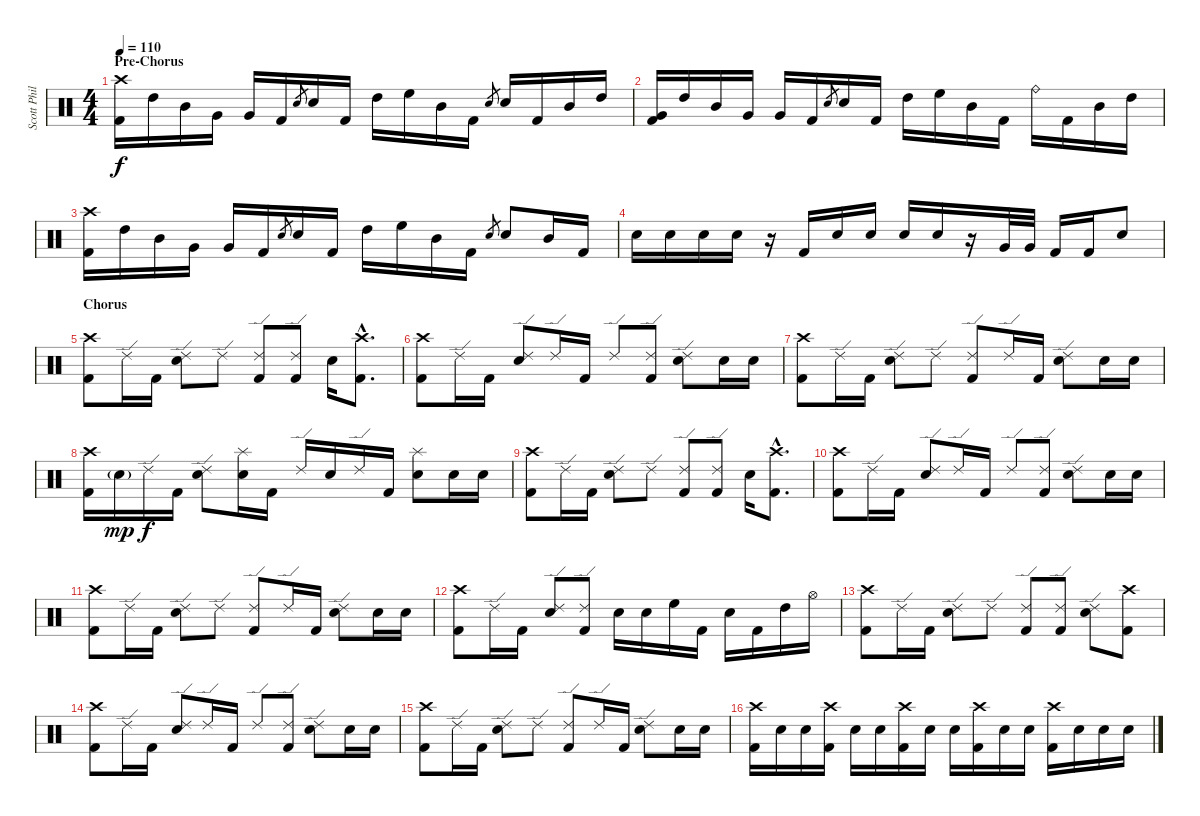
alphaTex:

\track ("Scott Phillips" "Scott Phil") {instrument percussion}
\staff {score}
\articulation defaults
\ts (4 4)
\section ("" "Pre-Chorus")
\tempo 110
\clef neutral
\ks c
("Crash high (hit)" "Kick (hit) 2").16{dy f} "High Tom (hit)".16 "Mid Tom (hit)".16 "Very Low Tom (hit)".16 "Very Low Tom (hit)".16 "Kick (hit) 2".16 "Snare (hit) 2".8{gr} "Snare (hit) 2".16 "Kick (hit) 2".16 "High Tom (hit)".16 "High Floor Tom (hit)".16 "Mid Tom (hit)".16 "Kick (hit) 2".16 "Snare (hit) 2".8{gr} "Snare (hit) 2".16 "Kick (hit) 2".16 "Mid Tom (hit)".16 "High Tom (hit)".16 |
("Very Low Tom (hit)" "Kick (hit) 2").16 "High Tom (hit)".16 "Mid Tom (hit)".16 "Very Low Tom (hit)".16 "Very Low Tom (hit)".16 "Kick (hit) 2".16 "Snare (hit) 2".8{gr} "Snare (hit) 2".16 "Kick (hit) 2".16 "High Tom (hit)".16 "High Floor Tom (hit)".16 "Mid Tom (hit)".16 "Kick (hit) 2".16 "Ride (bell)".16 "Kick (hit) 2".16 "Mid Tom (hit)".16 "High Tom (hit)".16 |
("Crash high (hit)" "Kick (hit) 2").16 "High Tom (hit)".16 "Mid Tom (hit)".16 "Very Low Tom (hit)".16 "Very Low Tom (hit)".16 "Kick (hit) 2".16 "Snare (hit) 2".8{gr} "Snare (hit) 2".16 "Kick (hit) 2".16 "High Tom (hit)".16 "High Floor Tom (hit)".16 "Mid Tom (hit)".16 "Kick (hit) 2".16 "Snare (hit) 2".8{gr} "Snare (hit) 2".8 "Mid Tom (hit)".16 "Kick (hit) 2".16 |
"Snare (hit) 2".16 "Snare (hit) 2".16 "Snare (hit) 2".16 "Snare (hit) 2".16 r.16 "Kick (hit) 2".16 "Snare (hit) 2".16 "Snare (hit) 2".16 "Snare (hit) 2".16 "Snare (hit) 2".16 r.16 "Very Low Tom (hit)".32 "Very Low Tom (hit)".32 "Kick (hit) 2".16 "Kick (hit) 2".16 "Snare (hit) 2".8 |
\section ("" "Chorus")
("Crash high (hit)" "Kick (hit) 2").8 "Ride (edge) 2".16 "Kick (hit) 2".16 ("Ride (edge) 2" "Snare (hit) 2").8 "Ride (edge) 2".8 ("Ride (edge) 2" "Kick (hit) 2").8 ("Ride (edge) 2" "Kick (hit) 2").8 "Snare (hit) 2".16 ("Crash high (hit)"{hac} "Kick (hit) 2"{hac}).8{d} |
("Crash high (hit)" "Kick (hit) 2").8 "Ride (edge) 2".16 "Kick (hit) 2".16 ("Ride (edge) 2" "Snare (hit) 2").8 "Ride (edge) 2".16 "Kick (hit) 2".16 "Ride (edge) 2".8 ("Ride (edge) 2" "Kick (hit) 2").8 ("Ride (edge) 2" "Snare (hit) 2").8 "Snare (hit) 2".16 "Snare (hit) 2".16 |
("Crash high (hit)" "Kick (hit) 2").8 "Ride (edge) 2".16 "Kick (hit) 2".16 ("Ride (edge) 2" "Snare (hit) 2").8 "Ride (edge) 2".8 ("Ride (edge) 2" "Kick (hit) 2").8 "Ride (edge) 2".16 "Kick (hit) 2".16 ("Ride (edge) 2" "Snare (hit) 2").8 "Snare (hit) 2".16 "Snare (hit) 2".16 |
("Crash high (hit)" "Kick (hit) 2").16 "Snare (hit) 2"{g}.16{dy mp} "Ride (edge) 2".16{dy f} "Kick (hit) 2".16 ("Ride (edge) 2" "Snare (hit) 2").8 ("Splash (hit)" "Snare (hit) 2").16 "Kick (hit) 2".16 "Ride (edge) 2".16 "Snare (hit) 2".16 "Ride (edge) 2".16 "Kick (hit) 2".16 ("Splash (hit)" "Snare (hit) 2").8 "Snare (hit) 2".16 "Snare (hit) 2".16 |
("Crash high (hit)" "Kick (hit) 2").8 "Ride (edge) 2".16 "Kick (hit) 2".16 ("Ride (edge) 2" "Snare (hit) 2").8 "Ride (edge) 2".8 ("Ride (edge) 2" "Kick (hit) 2").8 ("Ride (edge) 2" "Kick (hit) 2").8 "Snare (hit) 2".16 ("Crash high (hit)"{hac} "Kick (hit) 2"{hac}).8{d} |
("Crash high (hit)" "Kick (hit) 2").8 "Ride (edge) 2".16 "Kick (hit) 2".16 ("Ride (edge) 2" "Snare (hit) 2").8 "Ride (edge) 2".16 "Kick (hit) 2".16 "Ride (edge) 2".8 ("Ride (edge) 2" "Kick (hit) 2").8 ("Ride (edge) 2" "Snare (hit) 2").8 "Snare (hit) 2".16 "Snare (hit) 2".16 |
("Crash high (hit)" "Kick (hit) 2").8 "Ride (edge) 2".16 "Kick (hit) 2".16 ("Ride (edge) 2" "Snare (hit) 2").8 "Ride (edge) 2".8 ("Ride (edge) 2" "Kick (hit) 2").8 "Ride (edge) 2".16 "Kick (hit) 2".16 ("Ride (edge) 2" "Snare (hit) 2").8 "Snare (hit) 2".16 "Snare (hit) 2".16 |
("Crash high (hit)" "Kick (hit) 2").8 "Ride (edge) 2".16 "Kick (hit) 2".16 ("Ride (edge) 2" "Snare (hit) 2").8 ("Ride (edge) 2" "Kick (hit) 2").8 "Snare (hit) 2".16 "Snare (hit) 2".16 "High Floor Tom (hit)".16 "Kick (hit) 2".16 "Snare (hit) 2".16 "Kick (hit) 2".16 "High Tom (hit)".16 "Hi-Hat (open)".16 |
("Crash high (hit)" "Kick (hit) 2").8 "Ride (edge) 2".16 "Kick (hit) 2".16 ("Ride (edge) 2" "Snare (hit) 2").8 "Ride (edge) 2".8 ("Ride (edge) 2" "Kick (hit) 2").8 ("Ride (edge) 2" "Kick (hit) 2").8 ("Ride (edge) 2" "Snare (hit) 2").8 ("Crash high (hit)" "Kick (hit) 2").8 |
("Crash high (hit)" "Kick (hit) 2").8 "Ride (edge) 2".16 "Kick (hit) 2".16 ("Ride (edge) 2" "Snare (hit) 2").8 "Ride (edge) 2".16 "Kick (hit) 2".16 "Ride (edge) 2".8 ("Ride (edge) 2" "Kick (hit) 2").8 ("Ride (edge) 2" "Snare (hit) 2").8 "Snare (hit) 2".16 "Snare (hit) 2".16 |
("Crash high (hit)" "Kick (hit) 2").8 "Ride (edge) 2".16 "Kick (hit) 2".16 ("Ride (edge) 2" "Snare (hit) 2").8 "Ride (edge) 2".8 ("Ride (edge) 2" "Kick (hit) 2").8 "Ride (edge) 2".16 "Kick (hit) 2".16 ("Ride (edge) 2" "Snare (hit) 2").8 "Snare (hit) 2".16 "Snare (hit) 2".16 |
("Crash high (hit)" "Kick (hit) 2").16 "Snare (hit) 2".16 "Snare (hit) 2".16 ("Crash high (hit)" "Kick (hit) 2").16 "Snare (hit) 2".16 "Snare (hit) 2".16 ("Crash high (hit)" "Kick (hit) 2").16 "Snare (hit) 2".16 "Snare (hit) 2".16 ("Crash high (hit)" "Kick (hit) 2").16 "Snare (hit) 2".16 "Snare (hit) 2".16 ("Crash high (hit)" "Kick (hit) 2").16 "Snare (hit) 2".16 "Snare (hit) 2".16 "Snare (hit) 2".16
